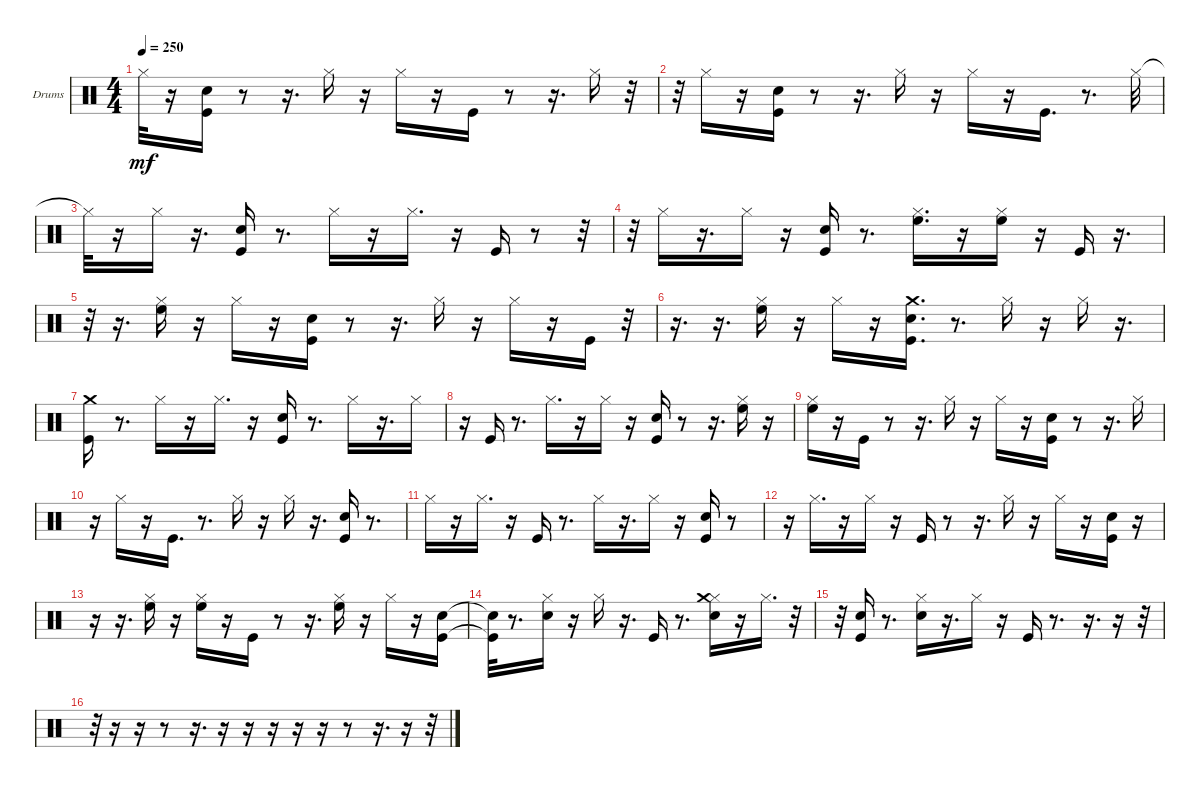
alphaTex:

\bracketExtendMode groupsimilarinstruments
\firstSystemTrackNameOrientation horizontal
\otherSystemsTrackNameOrientation horizontal
\track ("Drums" "Drums") {instrument percussion}
\staff {score}
\articulation defaults
\ts (4 4)
\tempo 250
\clef neutral
\ks c "Hi-Hat (closed)"{t}.32{dy mf}
r.16 ("Kick (hit)" "Snare (hit) 2").16 r.8 r.16{d} "Hi-Hat (closed)".16 r.16 "Hi-Hat (closed)".16 r.16 "Kick (hit)".16 r.8 r.16{d} "Hi-Hat (closed)".16 r.32 |
r.32 "Hi-Hat (closed)".16 r.16 ("Kick (hit)" "Snare (hit) 2").16 r.8 r.16{d} "Hi-Hat (closed)".16 r.16 "Hi-Hat (closed)".16 r.16 "Kick (hit)".16{d} r.8{d} "Hi-Hat (closed)".32 |
"Hi-Hat (closed)"{t}.32 r.16 "Hi-Hat (closed)".16 r.16{d} ("Kick (hit)" "Snare (hit) 2").16 r.8{d} "Hi-Hat (closed)".16 r.16 "Hi-Hat (closed)".16{d} r.16 "Kick (hit)".16 r.8 r.32 |
r.32 "Hi-Hat (closed)".16 r.16{d} "Hi-Hat (closed)".16 r.16 ("Kick (hit)" "Snare (hit) 2").16 r.8{d} ("High Floor Tom (hit)" "Hi-Hat (closed)").16{d} r.16 ("High Floor Tom (hit)" "Hi-Hat (closed)").16 r.16 "Kick (hit)".16 r.16{d} |
r.32 r.16{d} ("High Floor Tom (hit)" "Hi-Hat (closed)").16 r.16 "Hi-Hat (closed)".16 r.16 ("Kick (hit)" "Snare (hit) 2").16 r.8 r.16{d} "Hi-Hat (closed)".16 r.16 "Hi-Hat (closed)".16 r.16 "Kick (hit)".16 r.32 |
r.16{d} r.16{d} ("High Floor Tom (hit)" "Hi-Hat (closed)").16 r.16 "Hi-Hat (closed)".16 r.16 ("Kick (hit)" "Crash medium (hit)" "Snare (hit) 2").16{d} r.8{d} "Hi-Hat (closed)".16 r.16 "Hi-Hat (closed)".16 r.16{d} |
("Kick (hit)" "Crash medium (hit)").16 r.8{d} "Hi-Hat (closed)".16 r.16 "Hi-Hat (closed)".16{d} r.16 ("Kick (hit)" "Snare (hit) 2").16 r.8{d} "Hi-Hat (closed)".16 r.16{d} "Hi-Hat (closed)".16 |
r.16 "Kick (hit)".16 r.8{d} "Hi-Hat (closed)".16{d} r.16 "Hi-Hat (closed)".16 r.16 ("Kick (hit)" "Snare (hit) 2").16 r.8 r.16{d} ("High Floor Tom (hit)" "Hi-Hat (closed)").16 r.16 |
("High Floor Tom (hit)" "Hi-Hat (closed)").16 r.16 "Kick (hit)".16 r.8 r.16{d} "Hi-Hat (closed)".16 r.16 "Hi-Hat (closed)".16 r.16 ("Kick (hit)" "Snare (hit) 2").16 r.8 r.16{d} "Hi-Hat (closed)".16 |
r.16 "Hi-Hat (closed)".16 r.16 "Kick (hit)".16{d} r.8{d} "Hi-Hat (closed)".16 r.16 "Hi-Hat (closed)".16 r.16{d} ("Kick (hit)" "Snare (hit) 2").16 r.8{d} |
"Hi-Hat (closed)".16 r.16 "Hi-Hat (closed)".16{d} r.16 "Kick (hit)".16 r.8{d} "Hi-Hat (closed)".16 r.16{d} "Hi-Hat (closed)".16 r.16 ("Kick (hit)" "Snare (hit) 2").16 r.8 |
r.16 "Hi-Hat (closed)".16{d} r.16 "Hi-Hat (closed)".16 r.16 "Kick (hit)".16 r.8 r.16{d} "Hi-Hat (closed)".16 r.16 "Hi-Hat (closed)".16 r.16 ("Kick (hit)" "Snare (hit) 2").16 r.16 |
r.16 r.16{d} ("High Floor Tom (hit)" "Hi-Hat (closed)").16 r.16 ("High Floor Tom (hit)" "Hi-Hat (closed)").16 r.16 "Kick (hit)".16 r.8 r.16{d} ("High Floor Tom (hit)" "Hi-Hat (closed)").16 r.16 "Hi-Hat (closed)".16 r.16 ("Kick (hit)" "Snare (hit) 2").16 |
("Kick (hit)"{t} "Snare (hit) 2"{t}).32 r.8{d} ("Hi-Hat (closed)" "Snare (hit) 2").16 r.16 "Hi-Hat (closed)".16 r.16{d} "Kick (hit)".16 r.8{d} ("Hi-Hat (closed)" "Snare (hit) 2" "Crash medium (hit)").16 r.16 "Hi-Hat (closed)".16{d} r.32 |
r.32 ("Kick (hit)" "Snare (hit) 2").16 r.8{d} ("Hi-Hat (closed)" "Snare (hit) 2").16 r.16{d} "Hi-Hat (closed)".16 r.16 "Kick (hit)".16 r.8{d} r.16{d} r.16 r.32 |
r.32 r.16 r.16 r.8 r.16{d} r.16 r.16 r.16 r.16 r.16 r.8 r.16{d} r.16 r.32
